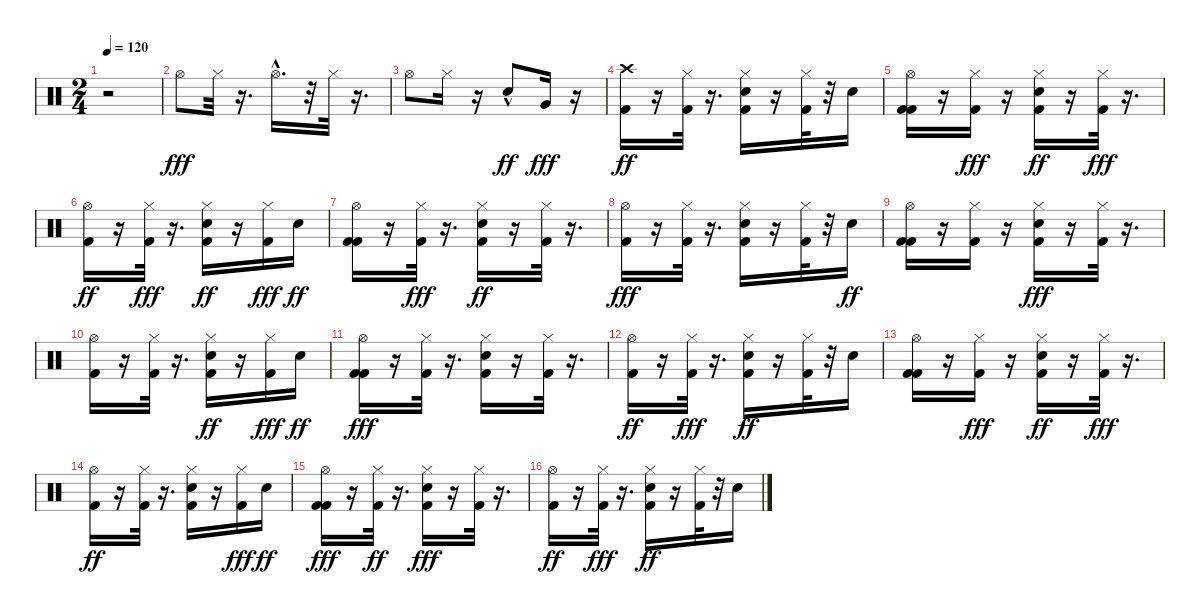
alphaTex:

\track "" {instrument percussion}
\staff {score}
\articulation defaults
\ts (2 4)
\tempo 120
\clef neutral
\ks c
r.2{dy fff} |
"Hi-Hat (open)".8 "Hi-Hat (closed)".32 r.16{d} "Hi-Hat (open)"{hac}.16{d} r.32 "Hi-Hat (closed)".32 r.16{d} |
"Hi-Hat (open)".8 "Hi-Hat (closed)".16 r.16 "Electric Snare (hit)"{hac}.8{dy ff} "Very Low Tom (hit)".16{dy fff} r.16 |
("Crash high (hit)" "Kick (hit) 2").16{dy ff} r.16 ("Hi-Hat (closed)" "Kick (hit) 2").32 r.16{d} ("Hi-Hat (closed)" "Snare (hit) 2" "Kick (hit) 2").16 r.16 ("Hi-Hat (closed)" "Kick (hit) 2").32 r.32 "Snare (hit) 2".16 |
("Kick (hit) 2" "Hi-Hat (open)" "Kick (hit) 2").16 r.16 ("Kick (hit) 2" "Hi-Hat (closed)").16{dy fff} r.16 ("Snare (hit) 2" "Hi-Hat (closed)" "Kick (hit) 2").16{dy ff} r.16 ("Kick (hit) 2" "Hi-Hat (closed)").32{dy fff} r.16{d} |
("Hi-Hat (open)" "Kick (hit) 2").16{dy ff} r.16 ("Kick (hit) 2" "Hi-Hat (closed)").32{dy fff} r.16{d} ("Kick (hit) 2" "Hi-Hat (closed)" "Snare (hit) 2").16{dy ff} r.16 ("Kick (hit) 2" "Hi-Hat (closed)").16{dy fff} "Snare (hit) 2".16{dy ff} |
("Kick (hit) 2" "Hi-Hat (open)" "Kick (hit) 2").16 r.16 ("Kick (hit) 2" "Hi-Hat (closed)").32{dy fff} r.16{d} ("Hi-Hat (closed)" "Kick (hit) 2" "Snare (hit) 2").16{dy ff} r.16 ("Hi-Hat (closed)" "Kick (hit) 2").32 r.16{d} |
("Kick (hit) 2" "Hi-Hat (open)").16{dy fff} r.16 ("Kick (hit) 2" "Hi-Hat (closed)").32 r.16{d} ("Snare (hit) 2" "Kick (hit) 2" "Hi-Hat (closed)").16 r.16 ("Kick (hit) 2" "Hi-Hat (closed)").32 r.32 "Snare (hit) 2".16{dy ff} |
("Kick (hit) 2" "Hi-Hat (open)" "Kick (hit) 2").16 r.16 ("Hi-Hat (closed)" "Kick (hit) 2").16 r.16 ("Snare (hit) 2" "Kick (hit) 2" "Hi-Hat (closed)").16{dy fff} r.16 ("Kick (hit) 2" "Hi-Hat (closed)").32 r.16{d} |
("Kick (hit) 2" "Hi-Hat (open)").16 r.16 ("Kick (hit) 2" "Hi-Hat (closed)").32 r.16{d} ("Hi-Hat (closed)" "Kick (hit) 2" "Snare (hit) 2").16{dy ff} r.16 ("Kick (hit) 2" "Hi-Hat (closed)").16{dy fff} "Snare (hit) 2".16{dy ff} |
("Kick (hit) 2" "Kick (hit) 2" "Hi-Hat (open)").16{dy fff} r.16 ("Kick (hit) 2" "Hi-Hat (closed)").32 r.16{d} ("Snare (hit) 2" "Kick (hit) 2" "Hi-Hat (closed)").16 r.16 ("Kick (hit) 2" "Hi-Hat (closed)").32 r.16{d} |
("Hi-Hat (open)" "Kick (hit) 2").16{dy ff} r.16 ("Kick (hit) 2" "Hi-Hat (closed)").32{dy fff} r.16{d} ("Snare (hit) 2" "Hi-Hat (closed)" "Kick (hit) 2").16{dy ff} r.16 ("Hi-Hat (closed)" "Kick (hit) 2").32 r.32 "Snare (hit) 2".16 |
("Hi-Hat (open)" "Kick (hit) 2" "Kick (hit) 2").16 r.16 ("Kick (hit) 2" "Hi-Hat (closed)").16{dy fff} r.16 ("Hi-Hat (closed)" "Kick (hit) 2" "Snare (hit) 2").16{dy ff} r.16 ("Kick (hit) 2" "Hi-Hat (closed)").32{dy fff} r.16{d} |
("Hi-Hat (open)" "Kick (hit) 2").16{dy ff} r.16 ("Hi-Hat (closed)" "Kick (hit) 2").32 r.16{d} ("Hi-Hat (closed)" "Kick (hit) 2" "Snare (hit) 2").16 r.16 ("Kick (hit) 2" "Hi-Hat (closed)").16{dy fff} "Snare (hit) 2".16{dy ff} |
("Kick (hit) 2" "Kick (hit) 2" "Hi-Hat (open)").16{dy fff} r.16 ("Hi-Hat (closed)" "Kick (hit) 2").32{dy ff} r.16{d} ("Snare (hit) 2" "Kick (hit) 2" "Hi-Hat (closed)").16{dy fff} r.16 ("Kick (hit) 2" "Hi-Hat (closed)").32 r.16{d} |
("Hi-Hat (open)" "Kick (hit) 2").16{dy ff} r.16 ("Kick (hit) 2" "Hi-Hat (closed)").32{dy fff} r.16{d} ("Hi-Hat (closed)" "Kick (hit) 2" "Snare (hit) 2").16{dy ff} r.16 ("Hi-Hat (closed)" "Kick (hit) 2").32 r.32 "Snare (hit) 2".16
